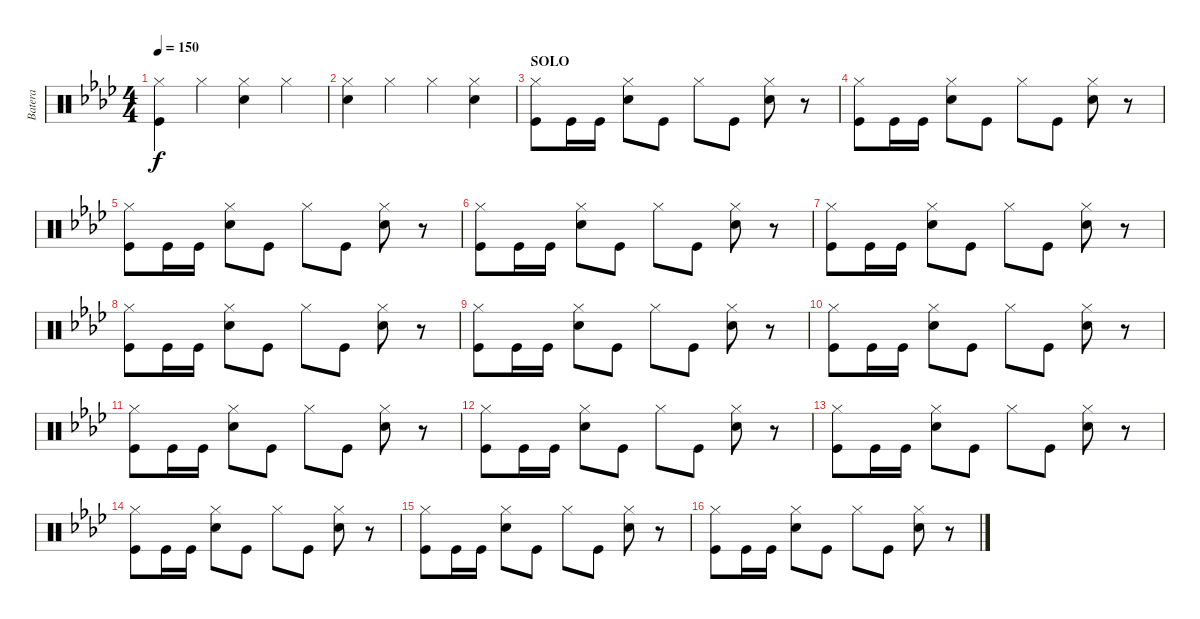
\track ("Batera" "Batera") {instrument percussion}
\staff {score}
\articulation defaults
\ts (4 4)
\tempo 150
\clef neutral
\ks fminor
("Hi-Hat (closed)" "Kick (hit)").4{dy f} "Hi-Hat (closed)".4 ("Hi-Hat (closed)" "Snare (hit) 2").4 "Hi-Hat (closed)".4 |
("Hi-Hat (closed)" "Snare (hit) 2").4 "Hi-Hat (closed)".4 "Hi-Hat (closed)".4 ("Hi-Hat (closed)" "Snare (hit) 2").4 |
\section ("" "SOLO")
("Hi-Hat (closed)" "Kick (hit)").8 "Kick (hit)".16 "Kick (hit)".16 ("Hi-Hat (closed)" "Snare (hit) 2").8 "Kick (hit)".8 "Hi-Hat (closed)".8 "Kick (hit)".8 ("Hi-Hat (closed)" "Snare (hit) 2").8 r.8 |
("Hi-Hat (closed)" "Kick (hit)").8 "Kick (hit)".16 "Kick (hit)".16 ("Hi-Hat (closed)" "Snare (hit) 2").8 "Kick (hit)".8 "Hi-Hat (closed)".8 "Kick (hit)".8 ("Hi-Hat (closed)" "Snare (hit) 2").8 r.8 |
("Hi-Hat (closed)" "Kick (hit)").8 "Kick (hit)".16 "Kick (hit)".16 ("Hi-Hat (closed)" "Snare (hit) 2").8 "Kick (hit)".8 "Hi-Hat (closed)".8 "Kick (hit)".8 ("Hi-Hat (closed)" "Snare (hit) 2").8 r.8 |
("Hi-Hat (closed)" "Kick (hit)").8 "Kick (hit)".16 "Kick (hit)".16 ("Hi-Hat (closed)" "Snare (hit) 2").8 "Kick (hit)".8 "Hi-Hat (closed)".8 "Kick (hit)".8 ("Hi-Hat (closed)" "Snare (hit) 2").8 r.8 |
("Hi-Hat (closed)" "Kick (hit)").8 "Kick (hit)".16 "Kick (hit)".16 ("Hi-Hat (closed)" "Snare (hit) 2").8 "Kick (hit)".8 "Hi-Hat (closed)".8 "Kick (hit)".8 ("Hi-Hat (closed)" "Snare (hit) 2").8 r.8 |
("Hi-Hat (closed)" "Kick (hit)").8 "Kick (hit)".16 "Kick (hit)".16 ("Hi-Hat (closed)" "Snare (hit) 2").8 "Kick (hit)".8 "Hi-Hat (closed)".8 "Kick (hit)".8 ("Hi-Hat (closed)" "Snare (hit) 2").8 r.8 |
("Hi-Hat (closed)" "Kick (hit)").8 "Kick (hit)".16 "Kick (hit)".16 ("Hi-Hat (closed)" "Snare (hit) 2").8 "Kick (hit)".8 "Hi-Hat (closed)".8 "Kick (hit)".8 ("Hi-Hat (closed)" "Snare (hit) 2").8 r.8 |
("Hi-Hat (closed)" "Kick (hit)").8 "Kick (hit)".16 "Kick (hit)".16 ("Hi-Hat (closed)" "Snare (hit) 2").8 "Kick (hit)".8 "Hi-Hat (closed)".8 "Kick (hit)".8 ("Hi-Hat (closed)" "Snare (hit) 2").8 r.8 |
("Hi-Hat (closed)" "Kick (hit)").8 "Kick (hit)".16 "Kick (hit)".16 ("Hi-Hat (closed)" "Snare (hit) 2").8 "Kick (hit)".8 "Hi-Hat (closed)".8 "Kick (hit)".8 ("Hi-Hat (closed)" "Snare (hit) 2").8 r.8 |
("Hi-Hat (closed)" "Kick (hit)").8 "Kick (hit)".16 "Kick (hit)".16 ("Hi-Hat (closed)" "Snare (hit) 2").8 "Kick (hit)".8 "Hi-Hat (closed)".8 "Kick (hit)".8 ("Hi-Hat (closed)" "Snare (hit) 2").8 r.8 |
("Hi-Hat (closed)" "Kick (hit)").8 "Kick (hit)".16 "Kick (hit)".16 ("Hi-Hat (closed)" "Snare (hit) 2").8 "Kick (hit)".8 "Hi-Hat (closed)".8 "Kick (hit)".8 ("Hi-Hat (closed)" "Snare (hit) 2").8 r.8 |
("Hi-Hat (closed)" "Kick (hit)").8 "Kick (hit)".16 "Kick (hit)".16 ("Hi-Hat (closed)" "Snare (hit) 2").8 "Kick (hit)".8 "Hi-Hat (closed)".8 "Kick (hit)".8 ("Hi-Hat (closed)" "Snare (hit) 2").8 r.8 |
("Hi-Hat (closed)" "Kick (hit)").8 "Kick (hit)".16 "Kick (hit)".16 ("Hi-Hat (closed)" "Snare (hit) 2").8 "Kick (hit)".8 "Hi-Hat (closed)".8 "Kick (hit)".8 ("Hi-Hat (closed)" "Snare (hit) 2").8 r.8 |
("Hi-Hat (closed)" "Kick (hit)").8 "Kick (hit)".16 "Kick (hit)".16 ("Hi-Hat (closed)" "Snare (hit) 2").8 "Kick (hit)".8 "Hi-Hat (closed)".8 "Kick (hit)".8 ("Hi-Hat (closed)" "Snare (hit) 2").8 r.8
